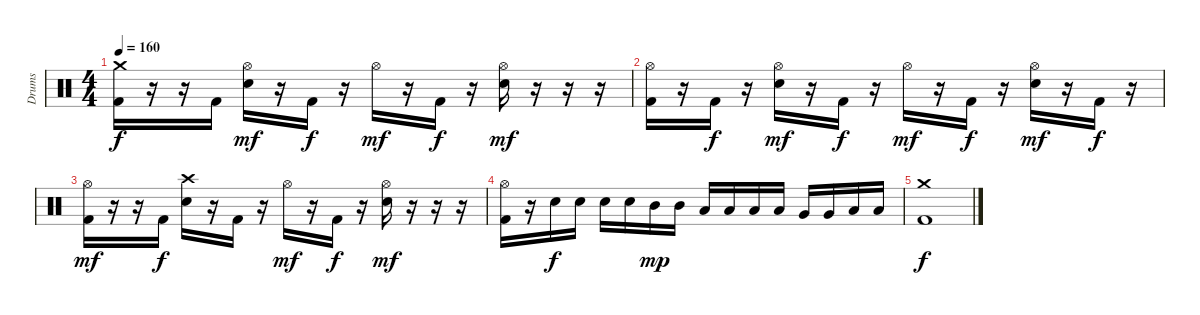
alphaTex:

\track ("Drums" "Drums") {instrument percussion}
\staff {score}
\articulation defaults
\ts (4 4)
\tempo 160
\clef neutral
\ks c
("Crash medium (hit)" "Kick (hit) 2").16{dy f} r.16 r.16 "Kick (hit) 2".16 ("Hi-Hat (open)" "Electric Snare (hit)").16{dy mf} r.16 "Kick (hit) 2".16{dy f} r.16 "Hi-Hat (open)".16{dy mf} r.16 "Kick (hit) 2".16{dy f} r.16 ("Hi-Hat (open)" "Electric Snare (hit)").16{dy mf} r.16 r.16 r.16 |
("Hi-Hat (open)" "Kick (hit) 2").16 r.16 "Kick (hit) 2".16{dy f} r.16 ("Hi-Hat (open)" "Electric Snare (hit)").16{dy mf} r.16 "Kick (hit) 2".16{dy f} r.16 "Hi-Hat (open)".16{dy mf} r.16 "Kick (hit) 2".16{dy f} r.16 ("Hi-Hat (open)" "Electric Snare (hit)").16{dy mf} r.16 "Kick (hit) 2".16{dy f} r.16 |
("Hi-Hat (open)" "Kick (hit) 2").16{dy mf} r.16 r.16 "Kick (hit) 2".16{dy f} ("Crash high (hit)" "Electric Snare (hit)").16 r.16 "Kick (hit) 2".16 r.16 "Hi-Hat (open)".16{dy mf} r.16 "Kick (hit) 2".16{dy f} r.16 ("Hi-Hat (open)" "Electric Snare (hit)").16{dy mf} r.16 r.16 r.16 |
("Hi-Hat (open)" "Kick (hit) 2").16 r.16 "Snare (hit) 2".16{dy f} "Snare (hit) 2".16 "Snare (hit) 2".16 "Snare (hit) 2".16 "Mid Tom (hit)".16{dy mp} "Mid Tom (hit)".16 "Low Tom (hit)".16 "Low Tom (hit)".16 "Low Tom (hit)".16 "Low Tom (hit)".16 "Very Low Tom (hit)".16 "Very Low Tom (hit)".16 "Low Floor Tom (hit)".16 "Low Floor Tom (hit)".16 |
("Crash medium (hit)" "Kick (hit) 2").1{dy f}
